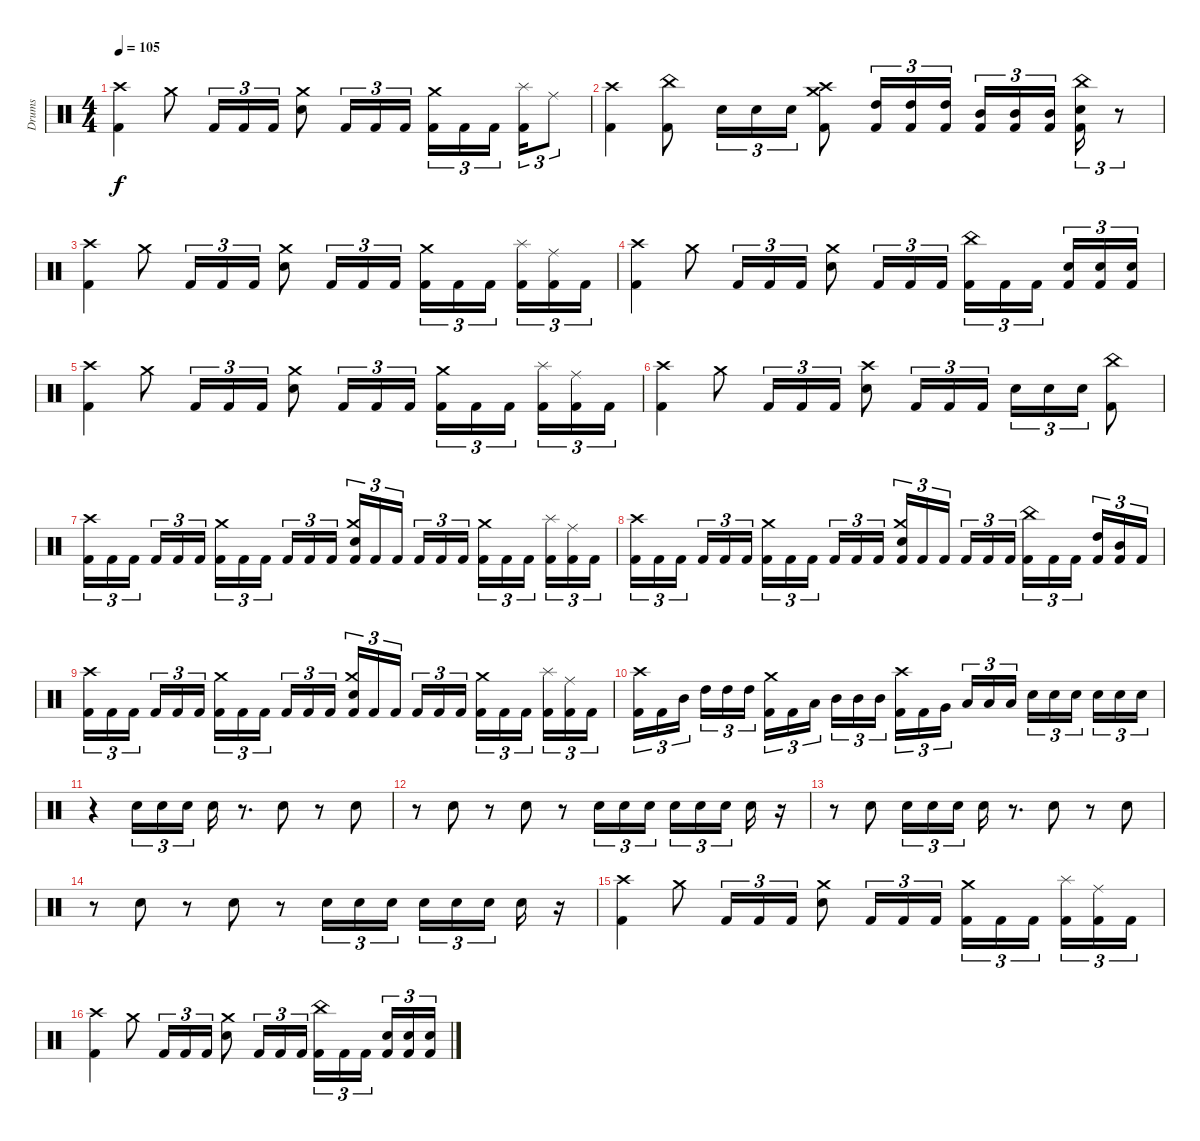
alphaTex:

\track ("Drums" "Drums") {instrument percussion}
\staff {score}
\articulation defaults
\ts (4 4)
\tempo 105
\clef neutral
\ks c
("Crash high (hit)" "Kick (hit) 2").4{dy f} "Crash medium (hit)".8 "Kick (hit) 2".16{tu (3 2)} "Kick (hit) 2".16{tu (3 2)} "Kick (hit) 2".16{tu (3 2)} ("Crash medium (hit)" "Electric Snare (hit)").8 "Kick (hit) 2".16{tu (3 2)} "Kick (hit) 2".16{tu (3 2)} "Kick (hit) 2".16{tu (3 2)} ("Crash medium (hit)" "Kick (hit) 2").16{tu (3 2)} "Kick (hit) 2".16{tu (3 2)} "Kick (hit) 2".16{tu (3 2) beam splitsecondary} ("Splash (hit)" "Kick (hit) 2").16{tu (3 2)} "Ride (middle)".8{tu (3 2)} |
("Crash high (hit)" "Kick (hit) 2").4 ("China (hit)" "Kick (hit) 2").8 "Electric Snare (hit)".16{tu (3 2)} "Electric Snare (hit)".16{tu (3 2)} "Electric Snare (hit)".16{tu (3 2)} ("Crash high (hit)" "Crash medium (hit)" "Kick (hit) 2").8 ("High Tom (hit)" "Kick (hit) 2").16{tu (3 2)} ("High Tom (hit)" "Kick (hit) 2").16{tu (3 2)} ("High Tom (hit)" "Kick (hit) 2").16{tu (3 2)} ("Mid Tom (hit)" "Kick (hit) 2").16{tu (3 2)} ("Mid Tom (hit)" "Kick (hit) 2").16{tu (3 2)} ("Mid Tom (hit)" "Kick (hit) 2").16{tu (3 2) beam splitsecondary} ("China (hit)" "Electric Snare (hit)" "Kick (hit) 2").16{tu (3 2)} r.8{tu (3 2)} |
("Crash high (hit)" "Kick (hit) 2").4 "Crash medium (hit)".8 "Kick (hit) 2".16{tu (3 2)} "Kick (hit) 2".16{tu (3 2)} "Kick (hit) 2".16{tu (3 2)} ("Crash medium (hit)" "Electric Snare (hit)").8 "Kick (hit) 2".16{tu (3 2)} "Kick (hit) 2".16{tu (3 2)} "Kick (hit) 2".16{tu (3 2)} ("Crash medium (hit)" "Kick (hit) 2").16{tu (3 2)} "Kick (hit) 2".16{tu (3 2)} "Kick (hit) 2".16{tu (3 2) beam splitsecondary} ("Splash (hit)" "Kick (hit) 2").16{tu (3 2)} ("Ride (middle)" "Kick (hit) 2").16{tu (3 2)} "Kick (hit) 2".16{tu (3 2)} |
("Crash high (hit)" "Kick (hit) 2").4 "Crash medium (hit)".8 "Kick (hit) 2".16{tu (3 2)} "Kick (hit) 2".16{tu (3 2)} "Kick (hit) 2".16{tu (3 2)} ("Crash medium (hit)" "Electric Snare (hit)").8 "Kick (hit) 2".16{tu (3 2)} "Kick (hit) 2".16{tu (3 2)} "Kick (hit) 2".16{tu (3 2)} ("China (hit)" "Kick (hit) 2").16{tu (3 2)} "Kick (hit) 2".16{tu (3 2)} "Kick (hit) 2".16{tu (3 2) beam splitsecondary} ("Electric Snare (hit)" "Kick (hit) 2").16{tu (3 2)} ("Electric Snare (hit)" "Kick (hit) 2").16{tu (3 2)} ("Electric Snare (hit)" "Kick (hit) 2").16{tu (3 2)} |
("Crash high (hit)" "Kick (hit) 2").4 "Crash medium (hit)".8 "Kick (hit) 2".16{tu (3 2)} "Kick (hit) 2".16{tu (3 2)} "Kick (hit) 2".16{tu (3 2)} ("Crash medium (hit)" "Electric Snare (hit)").8 "Kick (hit) 2".16{tu (3 2)} "Kick (hit) 2".16{tu (3 2)} "Kick (hit) 2".16{tu (3 2)} ("Crash medium (hit)" "Kick (hit) 2").16{tu (3 2)} "Kick (hit) 2".16{tu (3 2)} "Kick (hit) 2".16{tu (3 2) beam splitsecondary} ("Splash (hit)" "Kick (hit) 2").16{tu (3 2)} ("Ride (middle)" "Kick (hit) 2").16{tu (3 2)} "Kick (hit) 2".16{tu (3 2)} |
("Crash high (hit)" "Kick (hit) 2").4 "Crash medium (hit)".8 "Kick (hit) 2".16{tu (3 2)} "Kick (hit) 2".16{tu (3 2)} "Kick (hit) 2".16{tu (3 2)} ("Crash high (hit)" "Electric Snare (hit)").8 "Kick (hit) 2".16{tu (3 2)} "Kick (hit) 2".16{tu (3 2)} "Kick (hit) 2".16{tu (3 2)} "Electric Snare (hit)".16{tu (3 2)} "Electric Snare (hit)".16{tu (3 2)} "Electric Snare (hit)".16{tu (3 2)} ("China (hit)" "Kick (hit) 2").8 |
("Crash high (hit)" "Kick (hit) 2").16{tu (3 2)} "Kick (hit) 2".16{tu (3 2)} "Kick (hit) 2".16{tu (3 2) beam splitsecondary} "Kick (hit) 2".16{tu (3 2)} "Kick (hit) 2".16{tu (3 2)} "Kick (hit) 2".16{tu (3 2)} ("Crash medium (hit)" "Kick (hit) 2").16{tu (3 2)} "Kick (hit) 2".16{tu (3 2)} "Kick (hit) 2".16{tu (3 2) beam splitsecondary} "Kick (hit) 2".16{tu (3 2)} "Kick (hit) 2".16{tu (3 2)} "Kick (hit) 2".16{tu (3 2)} ("Crash medium (hit)" "Electric Snare (hit)" "Kick (hit) 2").16{tu (3 2)} "Kick (hit) 2".16{tu (3 2)} "Kick (hit) 2".16{tu (3 2) beam splitsecondary} "Kick (hit) 2".16{tu (3 2)} "Kick (hit) 2".16{tu (3 2)} "Kick (hit) 2".16{tu (3 2)} ("Crash medium (hit)" "Kick (hit) 2").16{tu (3 2)} "Kick (hit) 2".16{tu (3 2)} "Kick (hit) 2".16{tu (3 2) beam splitsecondary} ("Splash (hit)" "Kick (hit) 2").16{tu (3 2)} ("Ride (middle)" "Kick (hit) 2").16{tu (3 2)} "Kick (hit) 2".16{tu (3 2)} |
("Crash high (hit)" "Kick (hit) 2").16{tu (3 2)} "Kick (hit) 2".16{tu (3 2)} "Kick (hit) 2".16{tu (3 2) beam splitsecondary} "Kick (hit) 2".16{tu (3 2)} "Kick (hit) 2".16{tu (3 2)} "Kick (hit) 2".16{tu (3 2)} ("Crash medium (hit)" "Kick (hit) 2").16{tu (3 2)} "Kick (hit) 2".16{tu (3 2)} "Kick (hit) 2".16{tu (3 2) beam splitsecondary} "Kick (hit) 2".16{tu (3 2)} "Kick (hit) 2".16{tu (3 2)} "Kick (hit) 2".16{tu (3 2)} ("Crash medium (hit)" "Electric Snare (hit)" "Kick (hit) 2").16{tu (3 2)} "Kick (hit) 2".16{tu (3 2)} "Kick (hit) 2".16{tu (3 2) beam splitsecondary} "Kick (hit) 2".16{tu (3 2)} "Kick (hit) 2".16{tu (3 2)} "Kick (hit) 2".16{tu (3 2)} ("China (hit)" "Kick (hit) 2").16{tu (3 2)} "Kick (hit) 2".16{tu (3 2)} "Kick (hit) 2".16{tu (3 2) beam splitsecondary} ("High Tom (hit)" "Kick (hit) 2").16{tu (3 2)} ("Mid Tom (hit)" "Kick (hit) 2").16{tu (3 2)} "Kick (hit) 2".16{tu (3 2)} |
("Crash high (hit)" "Kick (hit) 2").16{tu (3 2)} "Kick (hit) 2".16{tu (3 2)} "Kick (hit) 2".16{tu (3 2) beam splitsecondary} "Kick (hit) 2".16{tu (3 2)} "Kick (hit) 2".16{tu (3 2)} "Kick (hit) 2".16{tu (3 2)} ("Crash medium (hit)" "Kick (hit) 2").16{tu (3 2)} "Kick (hit) 2".16{tu (3 2)} "Kick (hit) 2".16{tu (3 2) beam splitsecondary} "Kick (hit) 2".16{tu (3 2)} "Kick (hit) 2".16{tu (3 2)} "Kick (hit) 2".16{tu (3 2)} ("Crash medium (hit)" "Electric Snare (hit)" "Kick (hit) 2").16{tu (3 2)} "Kick (hit) 2".16{tu (3 2)} "Kick (hit) 2".16{tu (3 2) beam splitsecondary} "Kick (hit) 2".16{tu (3 2)} "Kick (hit) 2".16{tu (3 2)} "Kick (hit) 2".16{tu (3 2)} ("Crash medium (hit)" "Kick (hit) 2").16{tu (3 2)} "Kick (hit) 2".16{tu (3 2)} "Kick (hit) 2".16{tu (3 2) beam splitsecondary} ("Splash (hit)" "Kick (hit) 2").16{tu (3 2)} ("Ride (middle)" "Kick (hit) 2").16{tu (3 2)} "Kick (hit) 2".16{tu (3 2)} |
("Crash high (hit)" "Kick (hit) 2").16{tu (3 2)} "Kick (hit) 2".16{tu (3 2)} "Mid Tom (hit)".16{tu (3 2) beam splitsecondary} "High Tom (hit)".16{tu (3 2)} "High Tom (hit)".16{tu (3 2)} "High Tom (hit)".16{tu (3 2)} ("Crash medium (hit)" "Kick (hit) 2").16{tu (3 2)} "Kick (hit) 2".16{tu (3 2)} "Low Tom (hit)".16{tu (3 2) beam splitsecondary} "Mid Tom (hit)".16{tu (3 2)} "Mid Tom (hit)".16{tu (3 2)} "Mid Tom (hit)".16{tu (3 2)} ("Crash high (hit)" "Kick (hit) 2").16{tu (3 2)} "Kick (hit) 2".16{tu (3 2)} "Very Low Tom (hit)".16{tu (3 2) beam splitsecondary} "Low Tom (hit)".16{tu (3 2)} "Low Tom (hit)".16{tu (3 2)} "Low Tom (hit)".16{tu (3 2)} "Electric Snare (hit)".16{tu (3 2)} "Electric Snare (hit)".16{tu (3 2)} "Electric Snare (hit)".16{tu (3 2) beam splitsecondary} "Electric Snare (hit)".16{tu (3 2)} "Electric Snare (hit)".16{tu (3 2)} "Electric Snare (hit)".16{tu (3 2)} |
r.4 "Electric Snare (hit)".16{tu (3 2)} "Electric Snare (hit)".16{tu (3 2)} "Electric Snare (hit)".16{tu (3 2) beam splitsecondary} "Electric Snare (hit)".16 r.8{d} "Electric Snare (hit)".8 r.8 "Electric Snare (hit)".8 |
r.8 "Electric Snare (hit)".8 r.8 "Electric Snare (hit)".8 r.8 "Electric Snare (hit)".16{tu (3 2)} "Electric Snare (hit)".16{tu (3 2)} "Electric Snare (hit)".16{tu (3 2)} "Electric Snare (hit)".16{tu (3 2)} "Electric Snare (hit)".16{tu (3 2)} "Electric Snare (hit)".16{tu (3 2) beam splitsecondary} "Electric Snare (hit)".16 r.16 |
r.8 "Electric Snare (hit)".8 "Electric Snare (hit)".16{tu (3 2)} "Electric Snare (hit)".16{tu (3 2)} "Electric Snare (hit)".16{tu (3 2) beam splitsecondary} "Electric Snare (hit)".16 r.8{d} "Electric Snare (hit)".8 r.8 "Electric Snare (hit)".8 |
r.8 "Electric Snare (hit)".8 r.8 "Electric Snare (hit)".8 r.8 "Electric Snare (hit)".16{tu (3 2)} "Electric Snare (hit)".16{tu (3 2)} "Electric Snare (hit)".16{tu (3 2)} "Electric Snare (hit)".16{tu (3 2)} "Electric Snare (hit)".16{tu (3 2)} "Electric Snare (hit)".16{tu (3 2) beam splitsecondary} "Electric Snare (hit)".16 r.16 |
("Crash high (hit)" "Kick (hit) 2").4 "Crash medium (hit)".8 "Kick (hit) 2".16{tu (3 2)} "Kick (hit) 2".16{tu (3 2)} "Kick (hit) 2".16{tu (3 2)} ("Crash medium (hit)" "Electric Snare (hit)").8 "Kick (hit) 2".16{tu (3 2)} "Kick (hit) 2".16{tu (3 2)} "Kick (hit) 2".16{tu (3 2)} ("Crash medium (hit)" "Kick (hit) 2").16{tu (3 2)} "Kick (hit) 2".16{tu (3 2)} "Kick (hit) 2".16{tu (3 2) beam splitsecondary} ("Splash (hit)" "Kick (hit) 2").16{tu (3 2)} ("Ride (middle)" "Kick (hit) 2").16{tu (3 2)} "Kick (hit) 2".16{tu (3 2)} |
("Crash high (hit)" "Kick (hit) 2").4 "Crash medium (hit)".8 "Kick (hit) 2".16{tu (3 2)} "Kick (hit) 2".16{tu (3 2)} "Kick (hit) 2".16{tu (3 2)} ("Crash medium (hit)" "Electric Snare (hit)").8 "Kick (hit) 2".16{tu (3 2)} "Kick (hit) 2".16{tu (3 2)} "Kick (hit) 2".16{tu (3 2)} ("China (hit)" "Kick (hit) 2").16{tu (3 2)} "Kick (hit) 2".16{tu (3 2)} "Kick (hit) 2".16{tu (3 2) beam splitsecondary} ("Electric Snare (hit)" "Kick (hit) 2").16{tu (3 2)} ("Electric Snare (hit)" "Kick (hit) 2").16{tu (3 2)} ("Electric Snare (hit)" "Kick (hit) 2").16{tu (3 2)}
